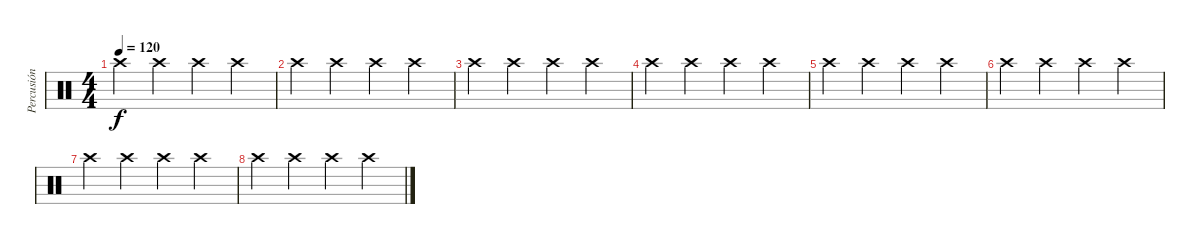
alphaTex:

\track ("Percusión" "Percusión") {instrument percussion}
\staff {score}
\articulation defaults
\ts (4 4)
\tempo 120
\clef neutral
\ks c "Crash high (hit)".4{dy f} "Crash high (hit)".4 "Crash high (hit)".4 "Crash high (hit)".4
|
"Crash high (hit)".4 "Crash high (hit)".4 "Crash high (hit)".4 "Crash high (hit)".4 |
"Crash high (hit)".4 "Crash high (hit)".4 "Crash high (hit)".4 "Crash high (hit)".4 |
"Crash high (hit)".4 "Crash high (hit)".4 "Crash high (hit)".4 "Crash high (hit)".4 |
"Crash high (hit)".4 "Crash high (hit)".4 "Crash high (hit)".4 "Crash high (hit)".4 |
"Crash high (hit)".4 "Crash high (hit)".4 "Crash high (hit)".4 "Crash high (hit)".4 |
"Crash high (hit)".4 "Crash high (hit)".4 "Crash high (hit)".4 "Crash high (hit)".4 |
"Crash high (hit)".4 "Crash high (hit)".4 "Crash high (hit)".4 "Crash high (hit)".4
